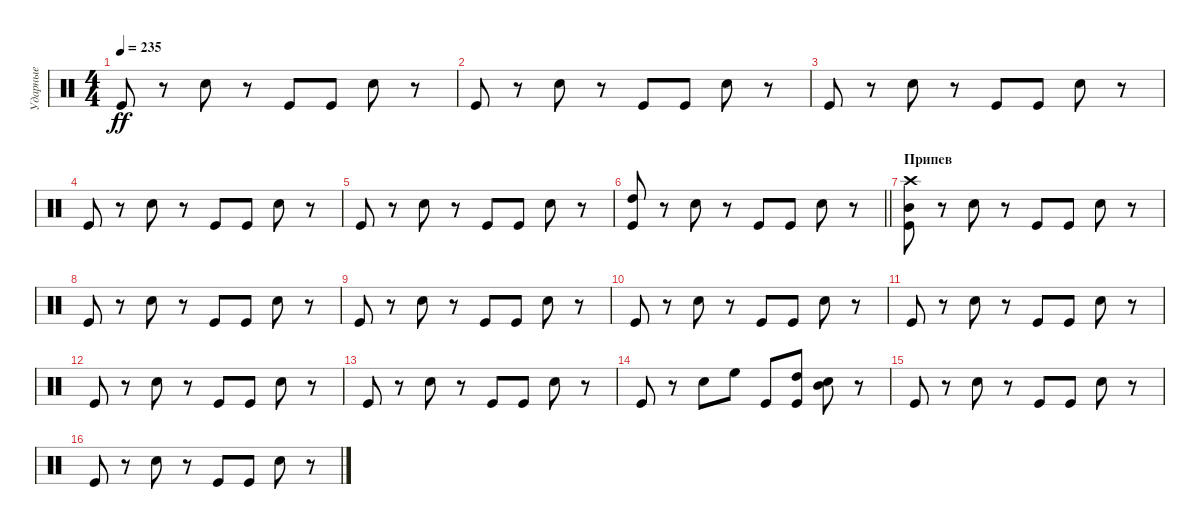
\track ("Ударные" "Ударные") {instrument percussion}
\staff {score}
\articulation defaults
\ts (4 4)
\tempo 235
\clef neutral
\ks c "Kick (hit)".8{dy ff}
r.8 "Snare (hit) 2".8 r.8 "Kick (hit)".8 "Kick (hit)".8 "Snare (hit) 2".8 r.8 |
"Kick (hit)".8 r.8 "Snare (hit) 2".8 r.8 "Kick (hit)".8 "Kick (hit)".8 "Snare (hit) 2".8 r.8 |
"Kick (hit)".8 r.8 "Snare (hit) 2".8 r.8 "Kick (hit)".8 "Kick (hit)".8 "Snare (hit) 2".8 r.8 |
"Kick (hit)".8 r.8 "Snare (hit) 2".8 r.8 "Kick (hit)".8 "Kick (hit)".8 "Snare (hit) 2".8 r.8 |
"Kick (hit)".8 r.8 "Snare (hit) 2".8 r.8 "Kick (hit)".8 "Kick (hit)".8 "Snare (hit) 2".8 r.8 |
\barLineRight lightlight
("Kick (hit)" "High Tom (hit)").8 r.8 "Snare (hit) 2".8 r.8 "Kick (hit)".8 "Kick (hit)".8 "Snare (hit) 2".8 r.8 |
\section ("" "Припев")
("Kick (hit)" "Mid Tom (hit)" "Crash high (hit)").8 r.8 "Snare (hit) 2".8 r.8 "Kick (hit)".8 "Kick (hit)".8 "Snare (hit) 2".8 r.8 |
"Kick (hit)".8 r.8 "Snare (hit) 2".8 r.8 "Kick (hit)".8 "Kick (hit)".8 "Snare (hit) 2".8 r.8 |
"Kick (hit)".8 r.8 "Snare (hit) 2".8 r.8 "Kick (hit)".8 "Kick (hit)".8 "Snare (hit) 2".8 r.8 |
"Kick (hit)".8 r.8 "Snare (hit) 2".8 r.8 "Kick (hit)".8 "Kick (hit)".8 "Snare (hit) 2".8 r.8 |
"Kick (hit)".8 r.8 "Snare (hit) 2".8 r.8 "Kick (hit)".8 "Kick (hit)".8 "Snare (hit) 2".8 r.8 |
"Kick (hit)".8 r.8 "Snare (hit) 2".8 r.8 "Kick (hit)".8 "Kick (hit)".8 "Snare (hit) 2".8 r.8 |
"Kick (hit)".8 r.8 "Snare (hit) 2".8 r.8 "Kick (hit)".8 "Kick (hit)".8 "Snare (hit) 2".8 r.8 |
"Kick (hit)".8 r.8 "Snare (hit) 2".8 "High Floor Tom (hit)".8 "Kick (hit)".8 ("Kick (hit)" "High Tom (hit)").8 ("Snare (hit) 2" "Mid Tom (hit)").8 r.8 |
"Kick (hit)".8 r.8 "Snare (hit) 2".8 r.8 "Kick (hit)".8 "Kick (hit)".8 "Snare (hit) 2".8 r.8 |
"Kick (hit)".8 r.8 "Snare (hit) 2".8 r.8 "Kick (hit)".8 "Kick (hit)".8 "Snare (hit) 2".8 r.8
